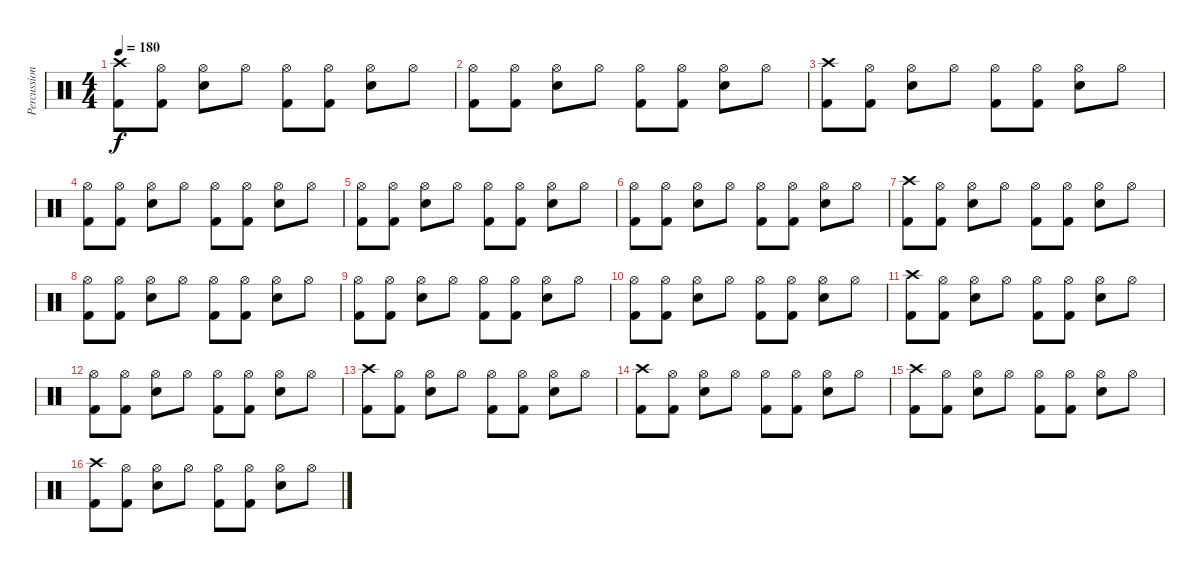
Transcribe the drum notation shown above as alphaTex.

\track ("Percussion" "Percussion") {instrument percussion}
\staff {score}
\articulation defaults
\ts (4 4)
\tempo 180
\clef neutral
\ks c
("Crash high (hit)" "Kick (hit) 2").8{dy f} ("Hi-Hat (open)" "Kick (hit) 2").8 ("Hi-Hat (open)" "Electric Snare (hit)").8 "Hi-Hat (open)".8 ("Hi-Hat (open)" "Kick (hit) 2").8 ("Hi-Hat (open)" "Kick (hit) 2").8 ("Hi-Hat (open)" "Electric Snare (hit)").8 "Hi-Hat (open)".8 |
("Hi-Hat (open)" "Kick (hit) 2").8 ("Hi-Hat (open)" "Kick (hit) 2").8 ("Hi-Hat (open)" "Electric Snare (hit)").8 "Hi-Hat (open)".8 ("Hi-Hat (open)" "Kick (hit) 2").8 ("Hi-Hat (open)" "Kick (hit) 2").8 ("Hi-Hat (open)" "Electric Snare (hit)").8 "Hi-Hat (open)".8 |
("Crash high (hit)" "Kick (hit) 2").8 ("Hi-Hat (open)" "Kick (hit) 2").8 ("Hi-Hat (open)" "Electric Snare (hit)").8 "Hi-Hat (open)".8 ("Hi-Hat (open)" "Kick (hit) 2").8 ("Hi-Hat (open)" "Kick (hit) 2").8 ("Hi-Hat (open)" "Electric Snare (hit)").8 "Hi-Hat (open)".8 |
("Hi-Hat (open)" "Kick (hit) 2").8 ("Hi-Hat (open)" "Kick (hit) 2").8 ("Hi-Hat (open)" "Electric Snare (hit)").8 "Hi-Hat (open)".8 ("Hi-Hat (open)" "Kick (hit) 2").8 ("Hi-Hat (open)" "Kick (hit) 2").8 ("Hi-Hat (open)" "Electric Snare (hit)").8 "Hi-Hat (open)".8 |
("Hi-Hat (open)" "Kick (hit) 2").8 ("Hi-Hat (open)" "Kick (hit) 2").8 ("Hi-Hat (open)" "Electric Snare (hit)").8 "Hi-Hat (open)".8 ("Hi-Hat (open)" "Kick (hit) 2").8 ("Hi-Hat (open)" "Kick (hit) 2").8 ("Hi-Hat (open)" "Electric Snare (hit)").8 "Hi-Hat (open)".8 |
("Hi-Hat (open)" "Kick (hit) 2").8 ("Hi-Hat (open)" "Kick (hit) 2").8 ("Hi-Hat (open)" "Electric Snare (hit)").8 "Hi-Hat (open)".8 ("Hi-Hat (open)" "Kick (hit) 2").8 ("Hi-Hat (open)" "Kick (hit) 2").8 ("Hi-Hat (open)" "Electric Snare (hit)").8 "Hi-Hat (open)".8 |
("Crash high (hit)" "Kick (hit) 2").8 ("Hi-Hat (open)" "Kick (hit) 2").8 ("Hi-Hat (open)" "Electric Snare (hit)").8 "Hi-Hat (open)".8 ("Hi-Hat (open)" "Kick (hit) 2").8 ("Hi-Hat (open)" "Kick (hit) 2").8 ("Hi-Hat (open)" "Electric Snare (hit)").8 "Hi-Hat (open)".8 |
("Hi-Hat (open)" "Kick (hit) 2").8 ("Hi-Hat (open)" "Kick (hit) 2").8 ("Hi-Hat (open)" "Electric Snare (hit)").8 "Hi-Hat (open)".8 ("Hi-Hat (open)" "Kick (hit) 2").8 ("Hi-Hat (open)" "Kick (hit) 2").8 ("Hi-Hat (open)" "Electric Snare (hit)").8 "Hi-Hat (open)".8 |
("Hi-Hat (open)" "Kick (hit) 2").8 ("Hi-Hat (open)" "Kick (hit) 2").8 ("Hi-Hat (open)" "Electric Snare (hit)").8 "Hi-Hat (open)".8 ("Hi-Hat (open)" "Kick (hit) 2").8 ("Hi-Hat (open)" "Kick (hit) 2").8 ("Hi-Hat (open)" "Electric Snare (hit)").8 "Hi-Hat (open)".8 |
("Hi-Hat (open)" "Kick (hit) 2").8 ("Hi-Hat (open)" "Kick (hit) 2").8 ("Hi-Hat (open)" "Electric Snare (hit)").8 "Hi-Hat (open)".8 ("Hi-Hat (open)" "Kick (hit) 2").8 ("Hi-Hat (open)" "Kick (hit) 2").8 ("Hi-Hat (open)" "Electric Snare (hit)").8 "Hi-Hat (open)".8 |
("Crash high (hit)" "Kick (hit) 2").8 ("Hi-Hat (open)" "Kick (hit) 2").8 ("Hi-Hat (open)" "Electric Snare (hit)").8 "Hi-Hat (open)".8 ("Hi-Hat (open)" "Kick (hit) 2").8 ("Hi-Hat (open)" "Kick (hit) 2").8 ("Hi-Hat (open)" "Electric Snare (hit)").8 "Hi-Hat (open)".8 |
("Hi-Hat (open)" "Kick (hit) 2").8 ("Hi-Hat (open)" "Kick (hit) 2").8 ("Hi-Hat (open)" "Electric Snare (hit)").8 "Hi-Hat (open)".8 ("Hi-Hat (open)" "Kick (hit) 2").8 ("Hi-Hat (open)" "Kick (hit) 2").8 ("Hi-Hat (open)" "Electric Snare (hit)").8 "Hi-Hat (open)".8 |
("Crash high (hit)" "Kick (hit) 2").8 ("Hi-Hat (open)" "Kick (hit) 2").8 ("Hi-Hat (open)" "Electric Snare (hit)").8 "Hi-Hat (open)".8 ("Hi-Hat (open)" "Kick (hit) 2").8 ("Hi-Hat (open)" "Kick (hit) 2").8 ("Hi-Hat (open)" "Electric Snare (hit)").8 "Hi-Hat (open)".8 |
("Crash high (hit)" "Kick (hit) 2").8 ("Hi-Hat (open)" "Kick (hit) 2").8 ("Hi-Hat (open)" "Electric Snare (hit)").8 "Hi-Hat (open)".8 ("Hi-Hat (open)" "Kick (hit) 2").8 ("Hi-Hat (open)" "Kick (hit) 2").8 ("Hi-Hat (open)" "Electric Snare (hit)").8 "Hi-Hat (open)".8 |
("Crash high (hit)" "Kick (hit) 2").8 ("Hi-Hat (open)" "Kick (hit) 2").8 ("Hi-Hat (open)" "Electric Snare (hit)").8 "Hi-Hat (open)".8 ("Hi-Hat (open)" "Kick (hit) 2").8 ("Hi-Hat (open)" "Kick (hit) 2").8 ("Hi-Hat (open)" "Electric Snare (hit)").8 "Hi-Hat (open)".8 |
("Crash high (hit)" "Kick (hit) 2").8 ("Hi-Hat (open)" "Kick (hit) 2").8 ("Hi-Hat (open)" "Electric Snare (hit)").8 "Hi-Hat (open)".8 ("Hi-Hat (open)" "Kick (hit) 2").8 ("Hi-Hat (open)" "Kick (hit) 2").8 ("Hi-Hat (open)" "Electric Snare (hit)").8 "Hi-Hat (open)".8
